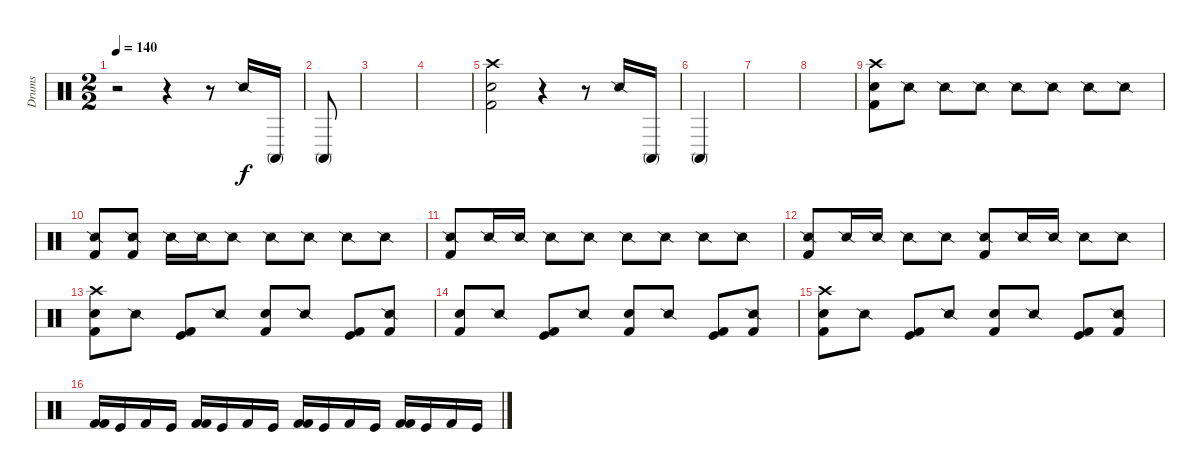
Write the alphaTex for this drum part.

\track ("Drums" "Drums") {instrument percussion}
\staff {score}
\articulation defaults
\ts (2 2)
\tempo 140
\clef neutral
\ks c
r.2{dy f} r.4 r.8 "Snare (side stick) 2".16 "Conga high (mute)".16 |
"Conga high (mute)".8 |
|
|
("Kick (hit) 2" "Snare (hit) 2" "Crash high (hit)").2 r.4 r.8 "Snare (side stick) 2".16 "Conga high (mute)".16 |
"Conga high (mute)".4 |
|
|
("Kick (hit) 2" "Snare (hit) 2" "Crash high (hit)").8 "Snare (side stick) 2".8 "Snare (side stick) 2".8 "Snare (side stick) 2".8 "Snare (side stick) 2".8 "Snare (side stick) 2".8 "Snare (side stick) 2".8 "Snare (side stick) 2".8 |
("Snare (side stick) 2" "Kick (hit) 2").8 ("Snare (side stick) 2" "Kick (hit) 2").8 "Snare (side stick) 2".16 "Snare (side stick) 2".16 "Snare (side stick) 2".8 "Snare (side stick) 2".8 "Snare (side stick) 2".8 "Snare (side stick) 2".8 "Snare (side stick) 2".8 |
("Snare (side stick) 2" "Kick (hit) 2").8 "Snare (side stick) 2".16 "Snare (side stick) 2".16 "Snare (side stick) 2".8 "Snare (side stick) 2".8 "Snare (side stick) 2".8 "Snare (side stick) 2".8 "Snare (side stick) 2".8 "Snare (side stick) 2".8 |
("Snare (side stick) 2" "Kick (hit) 2").8 "Snare (side stick) 2".16 "Snare (side stick) 2".16 "Snare (side stick) 2".8 "Snare (side stick) 2".8 ("Snare (side stick) 2" "Kick (hit) 2").8 "Snare (side stick) 2".16 "Snare (side stick) 2".16 "Snare (side stick) 2".8 "Snare (side stick) 2".8 |
("Kick (hit) 2" "Snare (hit) 2" "Crash high (hit)").8 "Snare (side stick) 2".8 ("Kick (hit)" "Kick (hit) 2").8 "Snare (side stick) 2".8 ("Kick (hit) 2" "Snare (hit) 2").8 "Snare (side stick) 2".8 ("Kick (hit)" "Kick (hit) 2").8 ("Snare (side stick) 2" "Kick (hit) 2").8 |
("Kick (hit) 2" "Snare (hit) 2").8 "Snare (side stick) 2".8 ("Kick (hit)" "Kick (hit) 2").8 "Snare (side stick) 2".8 ("Kick (hit) 2" "Snare (hit) 2").8 "Snare (side stick) 2".8 ("Kick (hit)" "Kick (hit) 2").8 ("Snare (side stick) 2" "Kick (hit) 2").8 |
("Kick (hit) 2" "Snare (hit) 2" "Crash high (hit)").8 "Snare (side stick) 2".8 ("Kick (hit)" "Kick (hit) 2").8 "Snare (side stick) 2".8 ("Kick (hit) 2" "Snare (hit) 2").8 "Snare (side stick) 2".8 ("Kick (hit)" "Kick (hit) 2").8 ("Snare (side stick) 2" "Kick (hit) 2").8 |
("Kick (hit) 2" "Kick (hit) 2").16 "Kick (hit)".16 "Kick (hit) 2".16 "Kick (hit)".16 ("Kick (hit) 2" "Kick (hit) 2").16 "Kick (hit)".16 "Kick (hit) 2".16 "Kick (hit)".16 ("Kick (hit) 2" "Kick (hit) 2").16 "Kick (hit)".16 "Kick (hit) 2".16 "Kick (hit)".16 ("Kick (hit) 2" "Kick (hit) 2").16 "Kick (hit)".16 "Kick (hit) 2".16 "Kick (hit)".16
